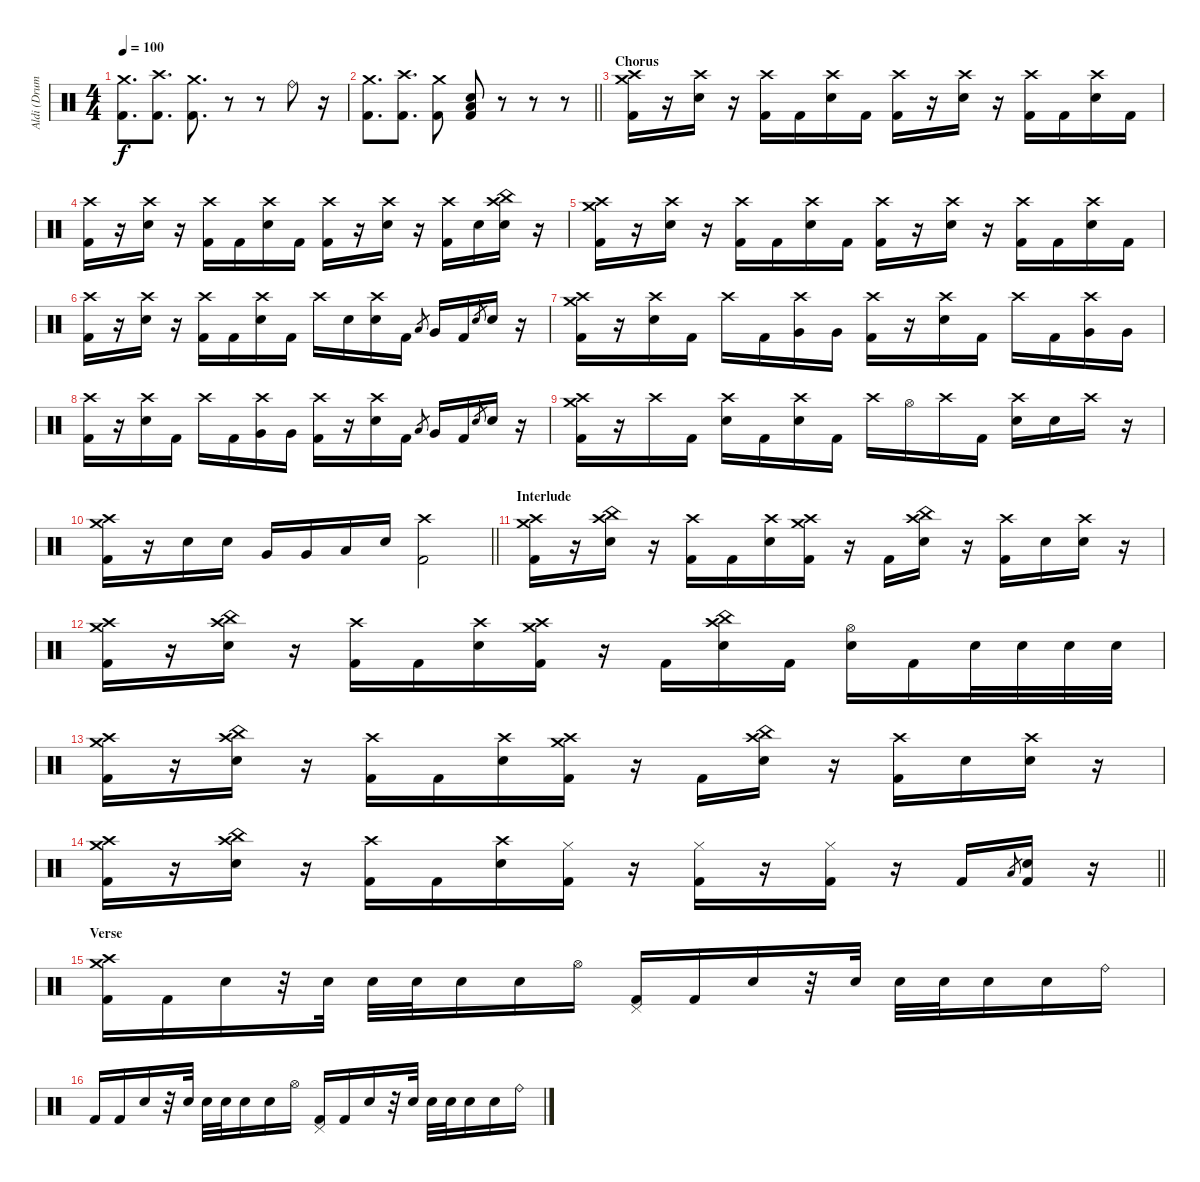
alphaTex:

\track ("Aldi (Drum)" "Aldi (Drum") {instrument percussion}
\staff {score}
\articulation defaults
\ts (4 4)
\tempo 100
\clef neutral
\ks c
("Crash medium (hit)" "Kick (hit) 2").8{d dy f} ("Crash high (hit)" "Kick (hit) 2").8{d} ("Crash medium (hit)" "Kick (hit) 2").8{d} r.8 r.8 "Ride (bell)".8 r.16 |
\barLineRight lightlight
("Crash medium (hit)" "Kick (hit) 2").8{d} ("Crash high (hit)" "Kick (hit) 2").8{d} ("Crash medium (hit)" "Kick (hit) 2").8 ("Electric Snare (hit)" "Low Floor Tom (hit)" "Kick (hit) 2").8 r.8 r.8 r.8 |
\section ("" "Chorus")
("Crash medium (hit)" "Crash high (hit)" "Kick (hit) 2").16 r.16 ("Crash high (hit)" "Electric Snare (hit)").16 r.16 ("Crash high (hit)" "Kick (hit) 2").16 "Kick (hit) 2".16 ("Crash high (hit)" "Electric Snare (hit)").16 "Kick (hit) 2".16 ("Crash high (hit)" "Kick (hit) 2").16 r.16 ("Crash high (hit)" "Electric Snare (hit)").16 r.16 ("Crash high (hit)" "Kick (hit) 2").16 "Kick (hit) 2".16 ("Crash high (hit)" "Electric Snare (hit)").16 "Kick (hit) 2".16 |
("Crash high (hit)" "Kick (hit) 2").16 r.16 ("Crash high (hit)" "Electric Snare (hit)").16 r.16 ("Crash high (hit)" "Kick (hit) 2").16 "Kick (hit) 2".16 ("Crash high (hit)" "Electric Snare (hit)").16 "Kick (hit) 2".16 ("Crash high (hit)" "Kick (hit) 2").16 r.16 ("Crash high (hit)" "Electric Snare (hit)").16 r.16 ("Crash high (hit)" "Kick (hit) 2").16 "Electric Snare (hit)".16 ("China (hit)" "Crash high (hit)" "Electric Snare (hit)").16 r.16 |
("Crash medium (hit)" "Crash high (hit)" "Kick (hit) 2").16 r.16 ("Crash high (hit)" "Electric Snare (hit)").16 r.16 ("Crash high (hit)" "Kick (hit) 2").16 "Kick (hit) 2".16 ("Crash high (hit)" "Electric Snare (hit)").16 "Kick (hit) 2".16 ("Crash high (hit)" "Kick (hit) 2").16 r.16 ("Crash high (hit)" "Electric Snare (hit)").16 r.16 ("Crash high (hit)" "Kick (hit) 2").16 "Kick (hit) 2".16 ("Crash high (hit)" "Electric Snare (hit)").16 "Kick (hit) 2".16 |
("Crash high (hit)" "Kick (hit) 2").16 r.16 ("Crash high (hit)" "Electric Snare (hit)").16 r.16 ("Crash high (hit)" "Kick (hit) 2").16 "Kick (hit) 2".16 ("Crash high (hit)" "Electric Snare (hit)").16 "Kick (hit) 2".16 "Crash high (hit)".16 "Electric Snare (hit)".16 ("Crash high (hit)" "Electric Snare (hit)").16 "Kick (hit) 2".16 "Low Floor Tom (hit)".8{gr} "Very Low Tom (hit)".16 "Kick (hit) 2".16 "Electric Snare (hit)".8{gr} "Electric Snare (hit)".16 r.16 |
("Crash medium (hit)" "Crash high (hit)" "Kick (hit) 2").16 r.16 ("Crash high (hit)" "Electric Snare (hit)").16 "Kick (hit) 2".16 "Crash high (hit)".16 "Kick (hit) 2".16 ("Crash high (hit)" "Very Low Tom (hit)").16 "Very Low Tom (hit)".16 ("Crash high (hit)" "Kick (hit) 2").16 r.16 ("Crash high (hit)" "Electric Snare (hit)").16 "Kick (hit) 2".16 "Crash high (hit)".16 "Kick (hit) 2".16 ("Crash high (hit)" "Very Low Tom (hit)").16 "Very Low Tom (hit)".16 |
("Crash high (hit)" "Kick (hit) 2").16 r.16 ("Crash high (hit)" "Electric Snare (hit)").16 "Kick (hit) 2".16 "Crash high (hit)".16 "Kick (hit) 2".16 ("Crash high (hit)" "Very Low Tom (hit)").16 "Very Low Tom (hit)".16 ("Crash high (hit)" "Kick (hit) 2").16 r.16 ("Crash high (hit)" "Electric Snare (hit)").16 "Kick (hit) 2".16 "Low Floor Tom (hit)".8{gr} "Very Low Tom (hit)".16 "Kick (hit) 2".16 "Electric Snare (hit)".8{gr} "Electric Snare (hit)".16 r.16 |
("Crash medium (hit)" "Crash high (hit)" "Kick (hit) 2").16 r.16 "Crash high (hit)".16 "Kick (hit) 2".16 ("Crash high (hit)" "Electric Snare (hit)").16 "Kick (hit) 2".16 ("Crash high (hit)" "Electric Snare (hit)").16 "Kick (hit) 2".16 "Crash high (hit)".16 "Hi-Hat (open)".16 "Crash high (hit)".16 "Kick (hit) 2".16 ("Crash high (hit)" "Electric Snare (hit)").16 "Electric Snare (hit)".16 "Crash high (hit)".16 r.16 |
\barLineRight lightlight
("Crash medium (hit)" "Crash high (hit)" "Kick (hit) 2").16 r.16 "Electric Snare (hit)".16 "Electric Snare (hit)".16 "Very Low Tom (hit)".16 "Very Low Tom (hit)".16 "Low Floor Tom (hit)".16 "Electric Snare (hit)".16 ("Crash high (hit)" "Kick (hit) 2").2 |
\section ("" "Interlude")
("Crash medium (hit)" "Crash high (hit)" "Kick (hit) 2").16 r.16 ("China (hit)" "Crash high (hit)" "Electric Snare (hit)").16 r.16 ("Crash high (hit)" "Kick (hit) 2").16 "Kick (hit) 2".16 ("Crash high (hit)" "Electric Snare (hit)").16 ("Crash medium (hit)" "Crash high (hit)" "Kick (hit) 2").16 r.16 "Kick (hit) 2".16 ("China (hit)" "Crash high (hit)" "Electric Snare (hit)").16 r.16 ("Crash high (hit)" "Kick (hit) 2").16 "Electric Snare (hit)".16 ("Crash high (hit)" "Electric Snare (hit)").16 r.16 |
("Crash medium (hit)" "Crash high (hit)" "Kick (hit) 2").16 r.16 ("China (hit)" "Crash high (hit)" "Electric Snare (hit)").16 r.16 ("Crash high (hit)" "Kick (hit) 2").16 "Kick (hit) 2".16 ("Crash high (hit)" "Electric Snare (hit)").16 ("Crash medium (hit)" "Crash high (hit)" "Kick (hit) 2").16 r.16 "Kick (hit) 2".16 ("China (hit)" "Crash high (hit)" "Electric Snare (hit)").16 "Kick (hit) 2".16 ("Hi-Hat (open)" "Electric Snare (hit)").16 "Kick (hit) 2".16 "Electric Snare (hit)".32 "Electric Snare (hit)".32 "Electric Snare (hit)".32 "Electric Snare (hit)".32 |
("Crash medium (hit)" "Crash high (hit)" "Kick (hit) 2").16 r.16 ("China (hit)" "Crash high (hit)" "Electric Snare (hit)").16 r.16 ("Crash high (hit)" "Kick (hit) 2").16 "Kick (hit) 2".16 ("Crash high (hit)" "Electric Snare (hit)").16 ("Crash medium (hit)" "Crash high (hit)" "Kick (hit) 2").16 r.16 "Kick (hit) 2".16 ("China (hit)" "Crash high (hit)" "Electric Snare (hit)").16 r.16 ("Crash high (hit)" "Kick (hit) 2").16 "Electric Snare (hit)".16 ("Crash high (hit)" "Electric Snare (hit)").16 r.16 |
\barLineRight lightlight
("Crash medium (hit)" "Crash high (hit)" "Kick (hit) 2").16 r.16 ("China (hit)" "Crash high (hit)" "Electric Snare (hit)").16 r.16 ("Crash high (hit)" "Kick (hit) 2").16 "Kick (hit) 2".16 ("Crash high (hit)" "Electric Snare (hit)").16 ("Hi-Hat (closed)" "Kick (hit) 2").16 r.16 ("Hi-Hat (closed)" "Kick (hit) 2").16 r.16 ("Hi-Hat (closed)" "Kick (hit) 2").16 r.16 "Kick (hit) 2".16 "Low Floor Tom (hit)".8{gr} ("Electric Snare (hit)" "Kick (hit) 2").16 r.16 |
\section ("" "Verse")
("Crash medium (hit)" "Crash high (hit)" "Kick (hit) 2").16 "Kick (hit) 2".16 "Electric Snare (hit)".16 r.32 "Electric Snare (hit)".32 "Electric Snare (hit)".32 "Electric Snare (hit)".32 "Electric Snare (hit)".16 "Electric Snare (hit)".16 "Hi-Hat (open)".16 ("Pedal Hi-Hat (hit)" "Kick (hit) 2").16 "Kick (hit) 2".16 "Electric Snare (hit)".16 r.32 "Electric Snare (hit)".32 "Electric Snare (hit)".32 "Electric Snare (hit)".32 "Electric Snare (hit)".16 "Electric Snare (hit)".16 "Ride (bell)".16 |
"Kick (hit) 2".16 "Kick (hit) 2".16 "Electric Snare (hit)".16 r.32 "Electric Snare (hit)".32 "Electric Snare (hit)".32 "Electric Snare (hit)".32 "Electric Snare (hit)".16 "Electric Snare (hit)".16 "Hi-Hat (open)".16 ("Pedal Hi-Hat (hit)" "Kick (hit) 2").16 "Kick (hit) 2".16 "Electric Snare (hit)".16 r.32 "Electric Snare (hit)".32 "Electric Snare (hit)".32 "Electric Snare (hit)".32 "Electric Snare (hit)".16 "Electric Snare (hit)".16 "Ride (bell)".16
